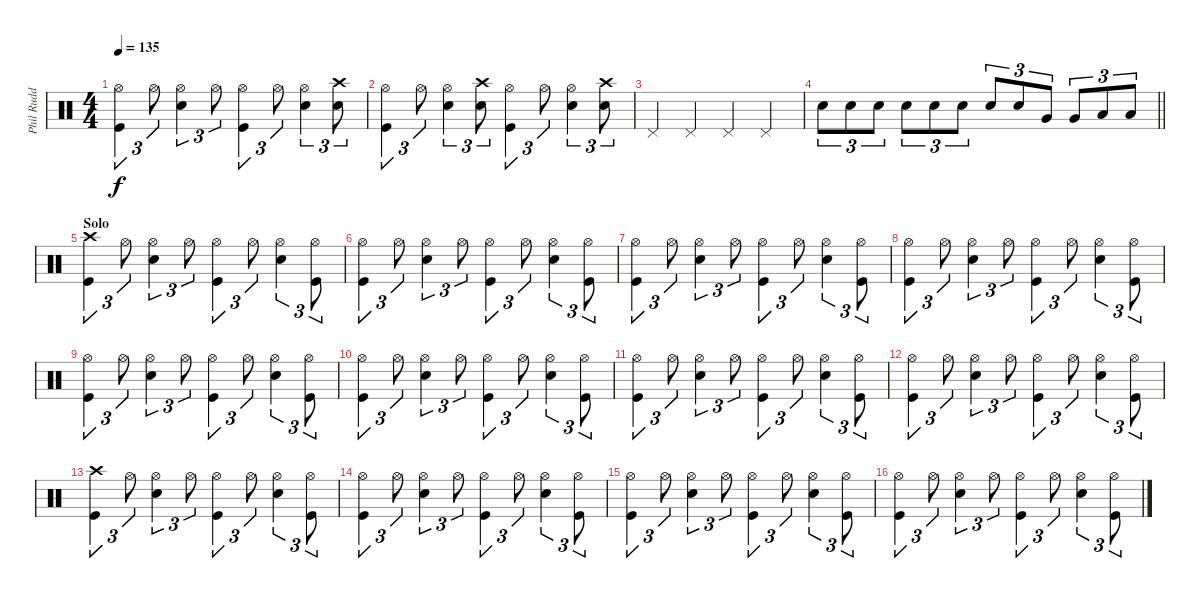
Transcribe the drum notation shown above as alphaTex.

\track ("Phil Rudd" "Phil Rudd") {instrument percussion}
\staff {score}
\articulation defaults
\ts (4 4)
\tempo 135
\clef neutral
\ks c
("Hi-Hat (open)" "Kick (hit)").4{tu (3 2) dy f} "Hi-Hat (open)".8{tu (3 2)} ("Hi-Hat (open)" "Snare (hit) 2").4{tu (3 2)} "Hi-Hat (open)".8{tu (3 2)} ("Hi-Hat (open)" "Kick (hit)").4{tu (3 2)} "Hi-Hat (open)".8{tu (3 2)} ("Hi-Hat (open)" "Snare (hit) 2").4{tu (3 2)} ("Crash high (hit)" "Snare (hit) 2").8{tu (3 2)} |
("Hi-Hat (open)" "Kick (hit)").4{tu (3 2)} "Hi-Hat (open)".8{tu (3 2)} ("Hi-Hat (open)" "Snare (hit) 2").4{tu (3 2)} ("Crash high (hit)" "Snare (hit) 2").8{tu (3 2)} ("Hi-Hat (open)" "Kick (hit)").4{tu (3 2)} "Hi-Hat (open)".8{tu (3 2)} ("Hi-Hat (open)" "Snare (hit) 2").4{tu (3 2)} ("Crash high (hit)" "Snare (hit) 2").8{tu (3 2)} |
"Pedal Hi-Hat (hit)".4 "Pedal Hi-Hat (hit)".4 "Pedal Hi-Hat (hit)".4 "Pedal Hi-Hat (hit)".4 |
\barLineRight lightlight "Snare (hit) 2".8{tu (3 2)} "Snare (hit) 2".8{tu (3 2)} "Snare (hit) 2".8{tu (3 2)} "Snare (hit) 2".8{tu (3 2)} "Snare (hit) 2".8{tu (3 2)} "Snare (hit) 2".8{tu (3 2)} "Snare (hit) 2".8{tu (3 2)} "Snare (hit) 2".8{tu (3 2)} "Very Low Tom (hit)".8{tu (3 2)} "Very Low Tom (hit)".8{tu (3 2)} "Low Floor Tom (hit)".8{tu (3 2)} "Low Floor Tom (hit)".8{tu (3 2)}
|
\section ("" "Solo")
("Crash high (hit)" "Kick (hit)").4{tu (3 2)} "Hi-Hat (open)".8{tu (3 2)} ("Hi-Hat (open)" "Snare (hit) 2").4{tu (3 2)} "Hi-Hat (open)".8{tu (3 2)} ("Hi-Hat (open)" "Kick (hit)").4{tu (3 2)} "Hi-Hat (open)".8{tu (3 2)} ("Hi-Hat (open)" "Snare (hit) 2").4{tu (3 2)} ("Hi-Hat (open)" "Kick (hit)").8{tu (3 2)} |
("Hi-Hat (open)" "Kick (hit)").4{tu (3 2)} "Hi-Hat (open)".8{tu (3 2)} ("Hi-Hat (open)" "Snare (hit) 2").4{tu (3 2)} "Hi-Hat (open)".8{tu (3 2)} ("Hi-Hat (open)" "Kick (hit)").4{tu (3 2)} "Hi-Hat (open)".8{tu (3 2)} ("Hi-Hat (open)" "Snare (hit) 2").4{tu (3 2)} ("Hi-Hat (open)" "Kick (hit)").8{tu (3 2)} |
("Hi-Hat (open)" "Kick (hit)").4{tu (3 2)} "Hi-Hat (open)".8{tu (3 2)} ("Hi-Hat (open)" "Snare (hit) 2").4{tu (3 2)} "Hi-Hat (open)".8{tu (3 2)} ("Hi-Hat (open)" "Kick (hit)").4{tu (3 2)} "Hi-Hat (open)".8{tu (3 2)} ("Hi-Hat (open)" "Snare (hit) 2").4{tu (3 2)} ("Hi-Hat (open)" "Kick (hit)").8{tu (3 2)} |
("Hi-Hat (open)" "Kick (hit)").4{tu (3 2)} "Hi-Hat (open)".8{tu (3 2)} ("Hi-Hat (open)" "Snare (hit) 2").4{tu (3 2)} "Hi-Hat (open)".8{tu (3 2)} ("Hi-Hat (open)" "Kick (hit)").4{tu (3 2)} "Hi-Hat (open)".8{tu (3 2)} ("Hi-Hat (open)" "Snare (hit) 2").4{tu (3 2)} ("Hi-Hat (open)" "Kick (hit)").8{tu (3 2)} |
("Hi-Hat (open)" "Kick (hit)").4{tu (3 2)} "Hi-Hat (open)".8{tu (3 2)} ("Hi-Hat (open)" "Snare (hit) 2").4{tu (3 2)} "Hi-Hat (open)".8{tu (3 2)} ("Hi-Hat (open)" "Kick (hit)").4{tu (3 2)} "Hi-Hat (open)".8{tu (3 2)} ("Hi-Hat (open)" "Snare (hit) 2").4{tu (3 2)} ("Hi-Hat (open)" "Kick (hit)").8{tu (3 2)} |
("Hi-Hat (open)" "Kick (hit)").4{tu (3 2)} "Hi-Hat (open)".8{tu (3 2)} ("Hi-Hat (open)" "Snare (hit) 2").4{tu (3 2)} "Hi-Hat (open)".8{tu (3 2)} ("Hi-Hat (open)" "Kick (hit)").4{tu (3 2)} "Hi-Hat (open)".8{tu (3 2)} ("Hi-Hat (open)" "Snare (hit) 2").4{tu (3 2)} ("Hi-Hat (open)" "Kick (hit)").8{tu (3 2)} |
("Hi-Hat (open)" "Kick (hit)").4{tu (3 2)} "Hi-Hat (open)".8{tu (3 2)} ("Hi-Hat (open)" "Snare (hit) 2").4{tu (3 2)} "Hi-Hat (open)".8{tu (3 2)} ("Hi-Hat (open)" "Kick (hit)").4{tu (3 2)} "Hi-Hat (open)".8{tu (3 2)} ("Hi-Hat (open)" "Snare (hit) 2").4{tu (3 2)} ("Hi-Hat (open)" "Kick (hit)").8{tu (3 2)} |
("Hi-Hat (open)" "Kick (hit)").4{tu (3 2)} "Hi-Hat (open)".8{tu (3 2)} ("Hi-Hat (open)" "Snare (hit) 2").4{tu (3 2)} "Hi-Hat (open)".8{tu (3 2)} ("Hi-Hat (open)" "Kick (hit)").4{tu (3 2)} "Hi-Hat (open)".8{tu (3 2)} ("Hi-Hat (open)" "Snare (hit) 2").4{tu (3 2)} ("Hi-Hat (open)" "Kick (hit)").8{tu (3 2)} |
("Crash high (hit)" "Kick (hit)").4{tu (3 2)} "Hi-Hat (open)".8{tu (3 2)} ("Hi-Hat (open)" "Snare (hit) 2").4{tu (3 2)} "Hi-Hat (open)".8{tu (3 2)} ("Hi-Hat (open)" "Kick (hit)").4{tu (3 2)} "Hi-Hat (open)".8{tu (3 2)} ("Hi-Hat (open)" "Snare (hit) 2").4{tu (3 2)} ("Hi-Hat (open)" "Kick (hit)").8{tu (3 2)} |
("Hi-Hat (open)" "Kick (hit)").4{tu (3 2)} "Hi-Hat (open)".8{tu (3 2)} ("Hi-Hat (open)" "Snare (hit) 2").4{tu (3 2)} "Hi-Hat (open)".8{tu (3 2)} ("Hi-Hat (open)" "Kick (hit)").4{tu (3 2)} "Hi-Hat (open)".8{tu (3 2)} ("Hi-Hat (open)" "Snare (hit) 2").4{tu (3 2)} ("Hi-Hat (open)" "Kick (hit)").8{tu (3 2)} |
("Hi-Hat (open)" "Kick (hit)").4{tu (3 2)} "Hi-Hat (open)".8{tu (3 2)} ("Hi-Hat (open)" "Snare (hit) 2").4{tu (3 2)} "Hi-Hat (open)".8{tu (3 2)} ("Hi-Hat (open)" "Kick (hit)").4{tu (3 2)} "Hi-Hat (open)".8{tu (3 2)} ("Hi-Hat (open)" "Snare (hit) 2").4{tu (3 2)} ("Hi-Hat (open)" "Kick (hit)").8{tu (3 2)} |
("Hi-Hat (open)" "Kick (hit)").4{tu (3 2)} "Hi-Hat (open)".8{tu (3 2)} ("Hi-Hat (open)" "Snare (hit) 2").4{tu (3 2)} "Hi-Hat (open)".8{tu (3 2)} ("Hi-Hat (open)" "Kick (hit)").4{tu (3 2)} "Hi-Hat (open)".8{tu (3 2)} ("Hi-Hat (open)" "Snare (hit) 2").4{tu (3 2)} ("Hi-Hat (open)" "Kick (hit)").8{tu (3 2)}
